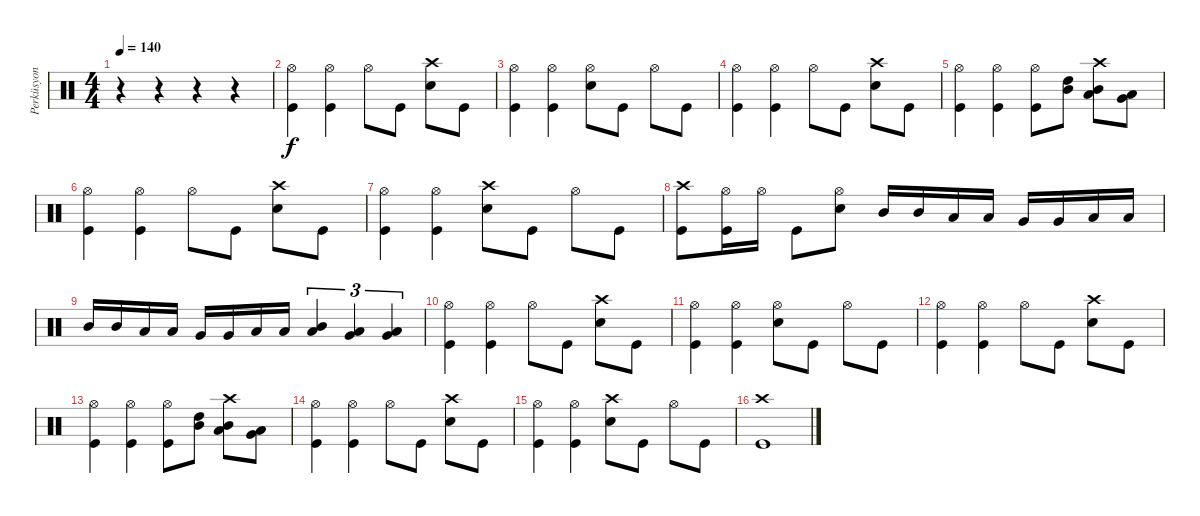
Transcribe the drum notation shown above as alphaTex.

\track ("Perküsyon" "Perküsyon") {instrument percussion}
\staff {score}
\articulation defaults
\ts (4 4)
\tempo 140
\clef neutral
\ks c
r.4{dy f} r.4 r.4 r.4 |
("Hi-Hat (open)" "Kick (hit)").4 ("Hi-Hat (open)" "Kick (hit)").4 "Hi-Hat (open)".8 "Kick (hit)".8 ("Crash high (hit)" "Snare (hit) 2").8 "Kick (hit)".8 |
("Hi-Hat (open)" "Kick (hit)").4 ("Hi-Hat (open)" "Kick (hit)").4 ("Hi-Hat (open)" "Snare (hit) 2").8 "Kick (hit)".8 "Hi-Hat (open)".8 "Kick (hit)".8 |
("Hi-Hat (open)" "Kick (hit)").4 ("Hi-Hat (open)" "Kick (hit)").4 "Hi-Hat (open)".8 "Kick (hit)".8 ("Crash high (hit)" "Snare (hit) 2").8 "Kick (hit)".8 |
("Hi-Hat (open)" "Kick (hit)").4 ("Hi-Hat (open)" "Kick (hit)").4 ("Hi-Hat (open)" "Kick (hit)").8 ("Mid Tom (hit)" "High Tom (hit)").8 ("Crash high (hit)" "Low Tom (hit)" "Mid Tom (hit)").8 ("Very Low Tom (hit)" "Low Tom (hit)").8 |
("Hi-Hat (open)" "Kick (hit)").4 ("Hi-Hat (open)" "Kick (hit)").4 "Hi-Hat (open)".8 "Kick (hit)".8 ("Crash high (hit)" "Snare (hit) 2").8 "Kick (hit)".8 |
("Hi-Hat (open)" "Kick (hit)").4 ("Hi-Hat (open)" "Kick (hit)").4 ("Crash high (hit)" "Snare (hit) 2").8 "Kick (hit)".8 "Hi-Hat (open)".8 "Kick (hit)".8 |
("Crash high (hit)" "Kick (hit)").8 ("Hi-Hat (open)" "Kick (hit)").16 "Hi-Hat (open)".16 "Kick (hit)".8 ("Hi-Hat (open)" "Snare (hit) 2").8 "Mid Tom (hit)".16 "Mid Tom (hit)".16 "Low Tom (hit)".16 "Low Tom (hit)".16 "Very Low Tom (hit)".16 "Very Low Tom (hit)".16 "Low Floor Tom (hit)".16 "Low Floor Tom (hit)".16 |
"Mid Tom (hit)".16 "Mid Tom (hit)".16 "Low Tom (hit)".16 "Low Tom (hit)".16 "Very Low Tom (hit)".16 "Very Low Tom (hit)".16 "Low Floor Tom (hit)".16 "Low Floor Tom (hit)".16 ("Low Tom (hit)" "Mid Tom (hit)").4{tu (3 2)} ("Very Low Tom (hit)" "Low Tom (hit)").4{tu (3 2)} ("Low Floor Tom (hit)" "Very Low Tom (hit)").4{tu (3 2)} |
("Hi-Hat (open)" "Kick (hit)").4 ("Hi-Hat (open)" "Kick (hit)").4 "Hi-Hat (open)".8 "Kick (hit)".8 ("Crash high (hit)" "Snare (hit) 2").8 "Kick (hit)".8 |
("Hi-Hat (open)" "Kick (hit)").4 ("Hi-Hat (open)" "Kick (hit)").4 ("Hi-Hat (open)" "Snare (hit) 2").8 "Kick (hit)".8 "Hi-Hat (open)".8 "Kick (hit)".8 |
("Hi-Hat (open)" "Kick (hit)").4 ("Hi-Hat (open)" "Kick (hit)").4 "Hi-Hat (open)".8 "Kick (hit)".8 ("Crash high (hit)" "Snare (hit) 2").8 "Kick (hit)".8 |
("Hi-Hat (open)" "Kick (hit)").4 ("Hi-Hat (open)" "Kick (hit)").4 ("Hi-Hat (open)" "Kick (hit)").8 ("Mid Tom (hit)" "High Tom (hit)").8 ("Crash high (hit)" "Low Tom (hit)" "Mid Tom (hit)").8 ("Very Low Tom (hit)" "Low Tom (hit)").8 |
("Hi-Hat (open)" "Kick (hit)").4 ("Hi-Hat (open)" "Kick (hit)").4 "Hi-Hat (open)".8 "Kick (hit)".8 ("Crash high (hit)" "Snare (hit) 2").8 "Kick (hit)".8 |
("Hi-Hat (open)" "Kick (hit)").4 ("Hi-Hat (open)" "Kick (hit)").4 ("Crash high (hit)" "Snare (hit) 2").8 "Kick (hit)".8 "Hi-Hat (open)".8 "Kick (hit)".8 |
("Crash high (hit)" "Kick (hit)").1
